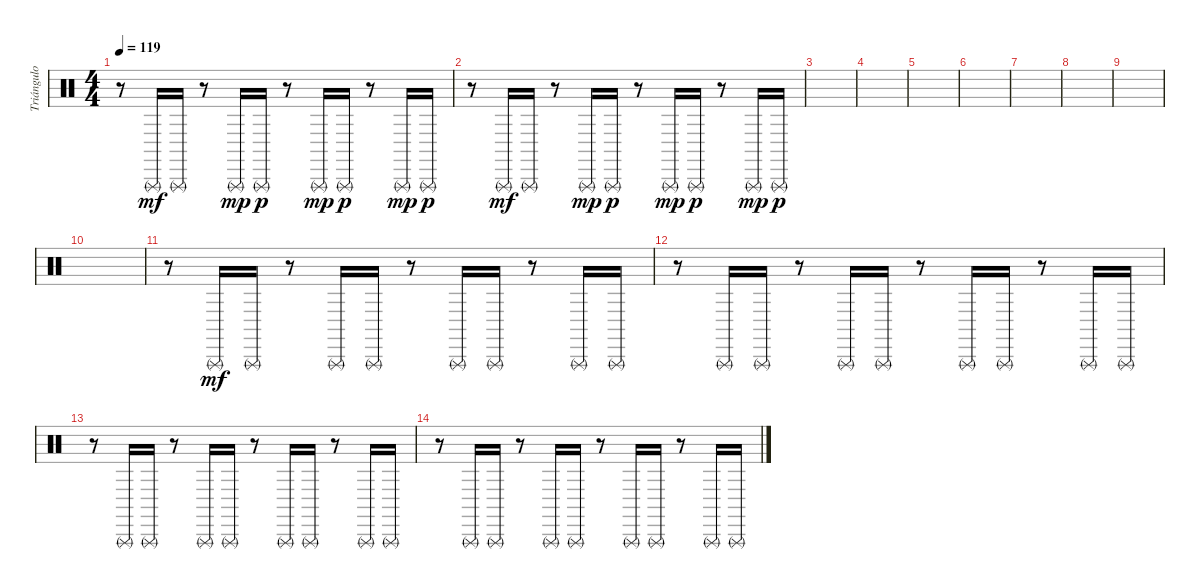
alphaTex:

\track ("Triángulo" "Triángulo") {instrument percussion}
\staff {score}
\articulation defaults
\ts (4 4)
\tempo 119
\clef neutral
\ks c
r.8{dy p} "Triangle (rnute)".16{dy mf} "Triangle (rnute)".16 r.8 "Triangle (rnute)".16{dy mp} "Triangle (rnute)".16{dy p} r.8 "Triangle (rnute)".16{dy mp} "Triangle (rnute)".16{dy p} r.8 "Triangle (rnute)".16{dy mp} "Triangle (rnute)".16{dy p} |
r.8 "Triangle (rnute)".16{dy mf} "Triangle (rnute)".16 r.8 "Triangle (rnute)".16{dy mp} "Triangle (rnute)".16{dy p} r.8 "Triangle (rnute)".16{dy mp} "Triangle (rnute)".16{dy p} r.8 "Triangle (rnute)".16{dy mp} "Triangle (rnute)".16{dy p} |
|
|
|
|
|
|
|
|
r.8 "Triangle (rnute)".16{dy mf} "Triangle (rnute)".16 r.8 "Triangle (rnute)".16 "Triangle (rnute)".16 r.8 "Triangle (rnute)".16 "Triangle (rnute)".16 r.8 "Triangle (rnute)".16 "Triangle (rnute)".16 |
r.8 "Triangle (rnute)".16 "Triangle (rnute)".16 r.8 "Triangle (rnute)".16 "Triangle (rnute)".16 r.8 "Triangle (rnute)".16 "Triangle (rnute)".16 r.8 "Triangle (rnute)".16 "Triangle (rnute)".16 |
r.8 "Triangle (rnute)".16 "Triangle (rnute)".16 r.8 "Triangle (rnute)".16 "Triangle (rnute)".16 r.8 "Triangle (rnute)".16 "Triangle (rnute)".16 r.8 "Triangle (rnute)".16 "Triangle (rnute)".16 |
r.8 "Triangle (rnute)".16 "Triangle (rnute)".16 r.8 "Triangle (rnute)".16 "Triangle (rnute)".16 r.8 "Triangle (rnute)".16 "Triangle (rnute)".16 r.8 "Triangle (rnute)".16 "Triangle (rnute)".16
